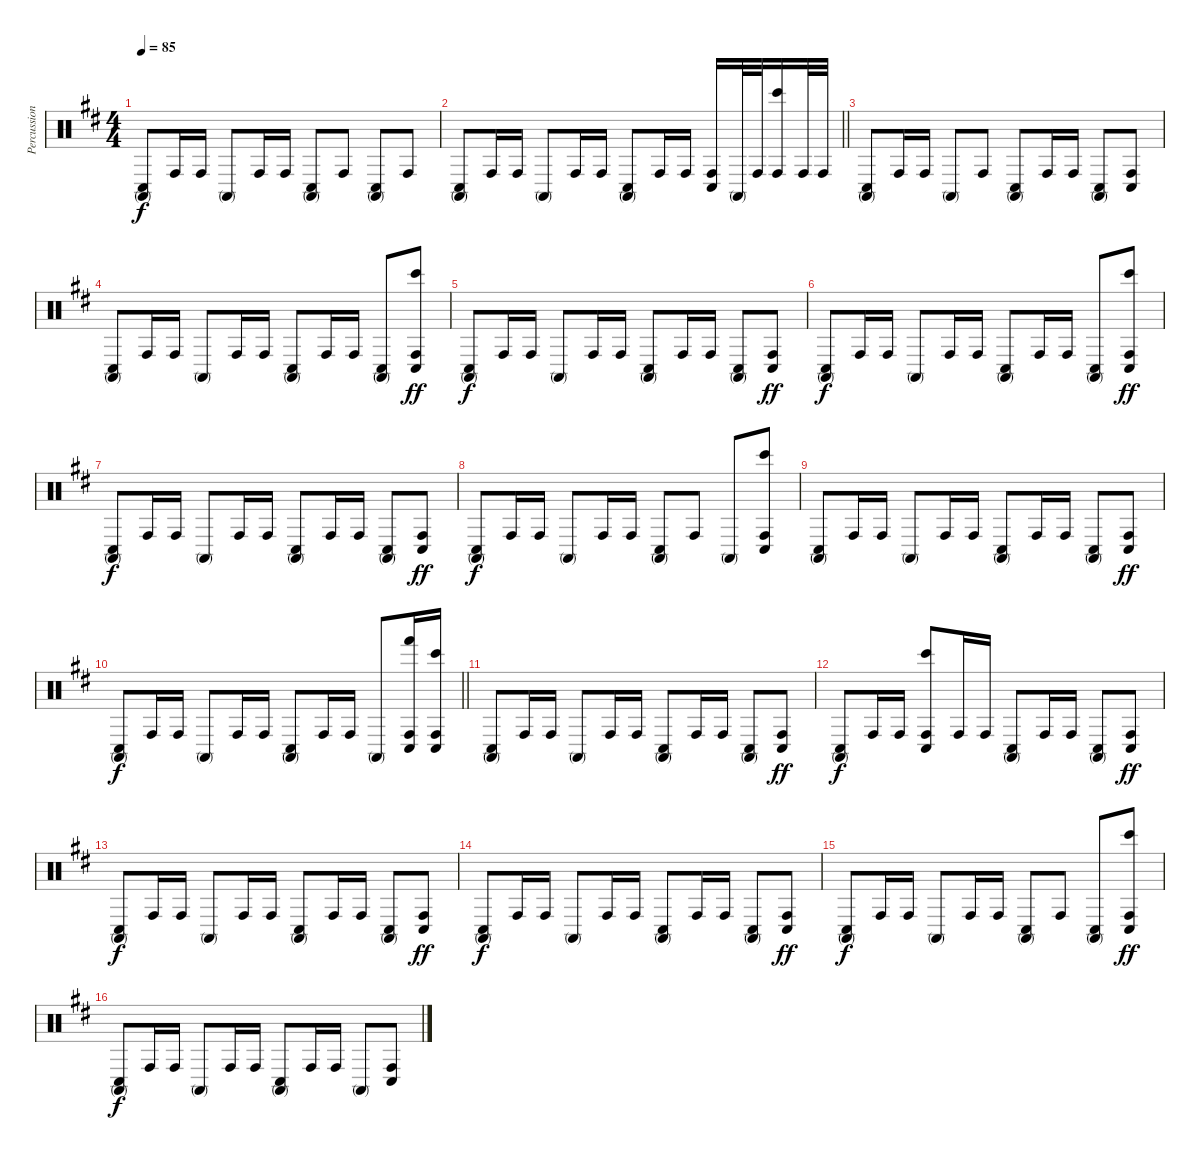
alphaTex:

\track ("Percussions" "Percussion") {instrument percussion}
\staff {score}
\articulation defaults
\ts (4 4)
\tempo 85
\clef neutral
\ks bminor
("Conga low (hit)" "Conga high (mute)").8{dy f} "Conga high (hit)".16 "Conga high (hit)".16 "Conga high (mute)".8 "Conga high (hit)".16 "Conga high (hit)".16 ("Conga low (hit)" "Conga high (mute)").8 "Conga high (hit)".8 ("Conga low (hit)" "Conga high (mute)").8 "Conga high (hit)".8 |
\barLineRight lightlight
("Conga low (hit)" "Conga high (mute)").8 "Conga high (hit)".16 "Conga high (hit)".16 "Conga high (mute)".8 "Conga high (hit)".16 "Conga high (hit)".16 ("Conga low (hit)" "Conga high (mute)").8 "Conga high (hit)".16 "Conga high (hit)".16 ("Conga high (hit)" "Conga low (hit)").16 "Conga high (mute)".32 "Conga high (hit)".32 ("Bongo High (hit)" "Conga high (hit)").16 "Conga high (hit)".32 "Conga high (hit)".32 |
("Conga low (hit)" "Conga high (mute)").8 "Conga high (hit)".16 "Conga high (hit)".16 "Conga high (mute)".8 "Conga high (hit)".8 ("Conga low (hit)" "Conga high (mute)").8 "Conga high (hit)".16 "Conga high (hit)".16 ("Conga low (hit)" "Conga high (mute)").8 ("Conga high (hit)" "Conga low (hit)").8 |
("Conga low (hit)" "Conga high (mute)").8 "Conga high (hit)".16 "Conga high (hit)".16 "Conga high (mute)".8 "Conga high (hit)".16 "Conga high (hit)".16 ("Conga low (hit)" "Conga high (mute)").8 "Conga high (hit)".16 "Conga high (hit)".16 ("Conga low (hit)" "Conga high (mute)").8 ("Bongo High (hit)" "Conga high (hit)" "Conga low (hit)").8{dy ff} |
("Conga low (hit)" "Conga high (mute)").8{dy f} "Conga high (hit)".16 "Conga high (hit)".16 "Conga high (mute)".8 "Conga high (hit)".16 "Conga high (hit)".16 ("Conga low (hit)" "Conga high (mute)").8 "Conga high (hit)".16 "Conga high (hit)".16 ("Conga low (hit)" "Conga high (mute)").8 ("Conga high (hit)" "Conga low (hit)").8{dy ff} |
("Conga low (hit)" "Conga high (mute)").8{dy f} "Conga high (hit)".16 "Conga high (hit)".16 "Conga high (mute)".8 "Conga high (hit)".16 "Conga high (hit)".16 ("Conga low (hit)" "Conga high (mute)").8 "Conga high (hit)".16 "Conga high (hit)".16 ("Conga low (hit)" "Conga high (mute)").8 ("Bongo High (hit)" "Conga high (hit)" "Conga low (hit)").8{dy ff} |
("Conga low (hit)" "Conga high (mute)").8{dy f} "Conga high (hit)".16 "Conga high (hit)".16 "Conga high (mute)".8 "Conga high (hit)".16 "Conga high (hit)".16 ("Conga low (hit)" "Conga high (mute)").8 "Conga high (hit)".16 "Conga high (hit)".16 ("Conga low (hit)" "Conga high (mute)").8 ("Conga high (hit)" "Conga low (hit)").8{dy ff} |
("Conga low (hit)" "Conga high (mute)").8{dy f} "Conga high (hit)".16 "Conga high (hit)".16 "Conga high (mute)".8 "Conga high (hit)".16 "Conga high (hit)".16 ("Conga low (hit)" "Conga high (mute)").8 "Conga high (hit)".8 "Conga high (mute)".8 ("Bongo High (hit)" "Conga high (hit)" "Conga low (hit)").8 |
("Conga low (hit)" "Conga high (mute)").8 "Conga high (hit)".16 "Conga high (hit)".16 "Conga high (mute)".8 "Conga high (hit)".16 "Conga high (hit)".16 ("Conga low (hit)" "Conga high (mute)").8 "Conga high (hit)".16 "Conga high (hit)".16 ("Conga low (hit)" "Conga high (mute)").8 ("Conga high (hit)" "Conga low (hit)").8{dy ff} |
\barLineRight lightlight
("Conga low (hit)" "Conga high (mute)").8{dy f} "Conga high (hit)".16 "Conga high (hit)".16 "Conga high (mute)".8 "Conga high (hit)".16 "Conga high (hit)".16 ("Conga low (hit)" "Conga high (mute)").8 "Conga high (hit)".16 "Conga high (hit)".16 "Conga high (mute)".8 ("Hand (hit)" "Conga high (hit)" "Conga low (hit)").16 ("Bongo High (hit)" "Conga high (hit)" "Conga low (hit)").16 |
("Conga low (hit)" "Conga high (mute)").8{volume 13} "Conga high (hit)".16 "Conga high (hit)".16 "Conga high (mute)".8 "Conga high (hit)".16 "Conga high (hit)".16 ("Conga low (hit)" "Conga high (mute)").8 "Conga high (hit)".16 "Conga high (hit)".16 ("Conga low (hit)" "Conga high (mute)").8 ("Conga high (hit)" "Conga low (hit)").8{dy ff} |
("Conga low (hit)" "Conga high (mute)").8{dy f} "Conga high (hit)".16 "Conga high (hit)".16 ("Bongo High (hit)" "Conga high (hit)" "Conga low (hit)").8 "Conga high (hit)".16 "Conga high (hit)".16 ("Conga low (hit)" "Conga high (mute)").8 "Conga high (hit)".16 "Conga high (hit)".16 ("Conga low (hit)" "Conga high (mute)").8 ("Conga high (hit)" "Conga low (hit)").8{dy ff} |
("Conga low (hit)" "Conga high (mute)").8{dy f} "Conga high (hit)".16 "Conga high (hit)".16 "Conga high (mute)".8 "Conga high (hit)".16 "Conga high (hit)".16 ("Conga low (hit)" "Conga high (mute)").8 "Conga high (hit)".16 "Conga high (hit)".16 ("Conga low (hit)" "Conga high (mute)").8 ("Conga high (hit)" "Conga low (hit)").8{dy ff} |
("Conga low (hit)" "Conga high (mute)").8{dy f} "Conga high (hit)".16 "Conga high (hit)".16 "Conga high (mute)".8 "Conga high (hit)".16 "Conga high (hit)".16 ("Conga low (hit)" "Conga high (mute)").8 "Conga high (hit)".16 "Conga high (hit)".16 ("Conga low (hit)" "Conga high (mute)").8 ("Conga high (hit)" "Conga low (hit)").8{dy ff} |
("Conga low (hit)" "Conga high (mute)").8{dy f volume 14} "Conga high (hit)".16 "Conga high (hit)".16 "Conga high (mute)".8 "Conga high (hit)".16 "Conga high (hit)".16 ("Conga low (hit)" "Conga high (mute)").8 "Conga high (hit)".8 ("Conga low (hit)" "Conga high (mute)").8 ("Bongo High (hit)" "Conga high (hit)" "Conga low (hit)").8{dy ff} |
("Conga low (hit)" "Conga high (mute)").8{dy f} "Conga high (hit)".16 "Conga high (hit)".16 "Conga high (mute)".8 "Conga high (hit)".16 "Conga high (hit)".16 ("Conga low (hit)" "Conga high (mute)").8 "Conga high (hit)".16 "Conga high (hit)".16 "Conga high (mute)".8 ("Conga high (hit)" "Conga low (hit)").8
